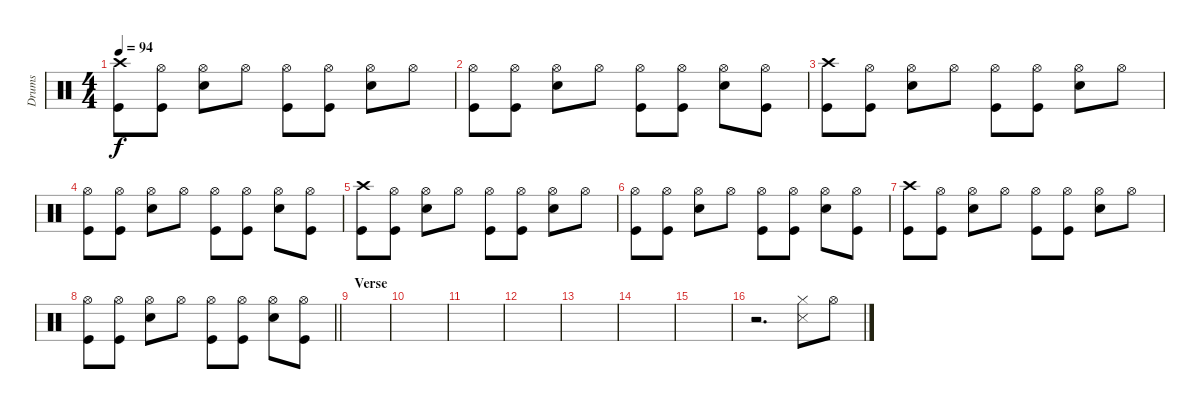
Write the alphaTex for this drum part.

\track ("Drums" "Drums") {instrument percussion}
\staff {score}
\articulation defaults
\ts (4 4)
\tempo 94
\clef neutral
\ks c
("Crash high (hit)" "Kick (hit)").8{dy f} ("Hi-Hat (open)" "Kick (hit)").8 ("Hi-Hat (open)" "Snare (hit) 2").8 "Hi-Hat (open)".8 ("Hi-Hat (open)" "Kick (hit)").8 ("Hi-Hat (open)" "Kick (hit)").8 ("Hi-Hat (open)" "Snare (hit) 2").8 "Hi-Hat (open)".8 |
("Hi-Hat (open)" "Kick (hit)").8 ("Hi-Hat (open)" "Kick (hit)").8 ("Hi-Hat (open)" "Snare (hit) 2").8 "Hi-Hat (open)".8 ("Hi-Hat (open)" "Kick (hit)").8 ("Hi-Hat (open)" "Kick (hit)").8 ("Hi-Hat (open)" "Snare (hit) 2").8 ("Hi-Hat (open)" "Kick (hit)").8 |
("Crash high (hit)" "Kick (hit)").8 ("Hi-Hat (open)" "Kick (hit)").8 ("Hi-Hat (open)" "Snare (hit) 2").8 "Hi-Hat (open)".8 ("Hi-Hat (open)" "Kick (hit)").8 ("Hi-Hat (open)" "Kick (hit)").8 ("Hi-Hat (open)" "Snare (hit) 2").8 "Hi-Hat (open)".8 |
("Hi-Hat (open)" "Kick (hit)").8 ("Hi-Hat (open)" "Kick (hit)").8 ("Hi-Hat (open)" "Snare (hit) 2").8 "Hi-Hat (open)".8 ("Hi-Hat (open)" "Kick (hit)").8 ("Hi-Hat (open)" "Kick (hit)").8 ("Hi-Hat (open)" "Snare (hit) 2").8 ("Hi-Hat (open)" "Kick (hit)").8 |
("Crash high (hit)" "Kick (hit)").8 ("Hi-Hat (open)" "Kick (hit)").8 ("Hi-Hat (open)" "Snare (hit) 2").8 "Hi-Hat (open)".8 ("Hi-Hat (open)" "Kick (hit)").8 ("Hi-Hat (open)" "Kick (hit)").8 ("Hi-Hat (open)" "Snare (hit) 2").8 "Hi-Hat (open)".8 |
("Hi-Hat (open)" "Kick (hit)").8 ("Hi-Hat (open)" "Kick (hit)").8 ("Hi-Hat (open)" "Snare (hit) 2").8 "Hi-Hat (open)".8 ("Hi-Hat (open)" "Kick (hit)").8 ("Hi-Hat (open)" "Kick (hit)").8 ("Hi-Hat (open)" "Snare (hit) 2").8 ("Hi-Hat (open)" "Kick (hit)").8 |
("Crash high (hit)" "Kick (hit)").8 ("Hi-Hat (open)" "Kick (hit)").8 ("Hi-Hat (open)" "Snare (hit) 2").8 "Hi-Hat (open)".8 ("Hi-Hat (open)" "Kick (hit)").8 ("Hi-Hat (open)" "Kick (hit)").8 ("Hi-Hat (open)" "Snare (hit) 2").8 "Hi-Hat (open)".8 |
\barLineRight lightlight
("Hi-Hat (open)" "Kick (hit)").8 ("Hi-Hat (open)" "Kick (hit)").8 ("Hi-Hat (open)" "Snare (hit) 2").8 "Hi-Hat (open)".8 ("Hi-Hat (open)" "Kick (hit)").8 ("Hi-Hat (open)" "Kick (hit)").8 ("Hi-Hat (open)" "Snare (hit) 2").8 ("Hi-Hat (open)" "Kick (hit)").8 |
\section ("" "Verse")
|
|
|
|
|
|
|
r.2{d} ("Hi-Hat (closed)" "Snare (side stick) 3").8 "Hi-Hat (open)".8
